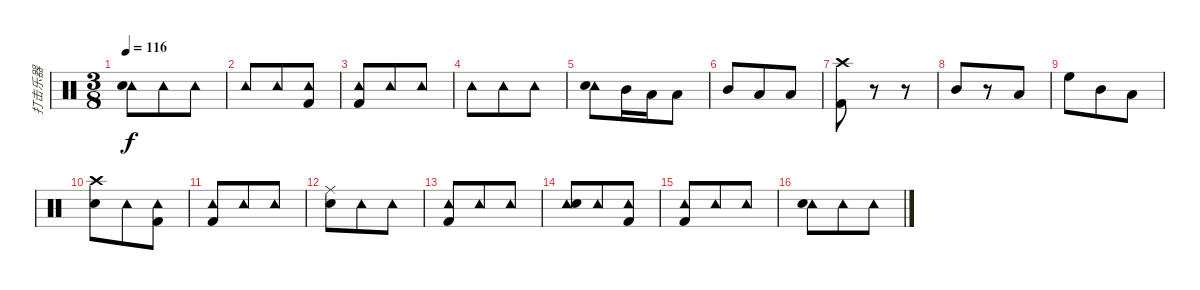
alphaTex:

\track ("打击乐器" "打击乐器") {instrument percussion}
\staff {score}
\articulation defaults
\ts (3 8)
\tempo 116
\clef neutral
\ks c
("Tambourine (hit)" "Snare (hit) 2").8{dy f} "Tambourine (hit)".8 "Tambourine (hit)".8 |
"Tambourine (hit)".8 "Tambourine (hit)".8 ("Tambourine (hit)" "Kick (hit) 2").8 |
("Tambourine (hit)" "Kick (hit) 2").8 "Tambourine (hit)".8 "Tambourine (hit)".8 |
"Tambourine (hit)".8 "Tambourine (hit)".8 "Tambourine (hit)".8 |
("Tambourine (hit)" "Snare (hit) 2").8 "Mid Tom (hit)".16 "Low Tom (hit)".16 "Low Floor Tom (hit)".8 |
"Mid Tom (hit)".8 "Low Tom (hit)".8 "Low Floor Tom (hit)".8 |
("Crash high (hit)" "Kick (hit) 2").8 r.8 r.8 |
"Mid Tom (hit)".8 r.8 "Low Tom (hit)".8 |
"High Floor Tom (hit)".8 "Mid Tom (hit)".8 "Low Tom (hit)".8 |
("Crash high (hit)" "Snare (hit) 2").8 "Tambourine (hit)".8 ("Tambourine (hit)" "Kick (hit) 2").8 |
("Tambourine (hit)" "Kick (hit) 2").8 "Tambourine (hit)".8 "Tambourine (hit)".8 |
("Ride (middle)" "Snare (hit) 2").8 "Tambourine (hit)".8 "Tambourine (hit)".8 |
("Tambourine (hit)" "Kick (hit) 2").8 "Tambourine (hit)".8 "Tambourine (hit)".8 |
("Tambourine (hit)" "Snare (hit) 2").8 "Tambourine (hit)".8 ("Tambourine (hit)" "Kick (hit) 2").8 |
("Tambourine (hit)" "Kick (hit) 2").8 "Tambourine (hit)".8 "Tambourine (hit)".8 |
("Tambourine (hit)" "Snare (hit) 2").8 "Tambourine (hit)".8 "Tambourine (hit)".8
